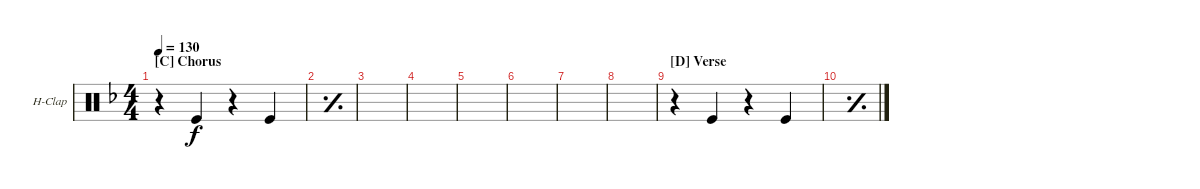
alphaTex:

\defaultSystemsLayout 4
\bracketExtendMode groupsimilarinstruments
\firstSystemTrackNameOrientation horizontal
\otherSystemsTrackNameOrientation horizontal
\track ("Hand Clap" "H-Clap") {instrument percussion}
\staff {score}
\articulation defaults
\ts (4 4)
\section ("C" "Chorus")
\tempo 130
\clef neutral
\ks f
r.4{dy f} "Kick (hit)".4 r.4 "Kick (hit)".4 |
\simile simple
|
|
|
|
|
|
|
\section ("D" "Verse")
\simile none
r.4 "Kick (hit)".4 r.4 "Kick (hit)".4 |
\simile simple
